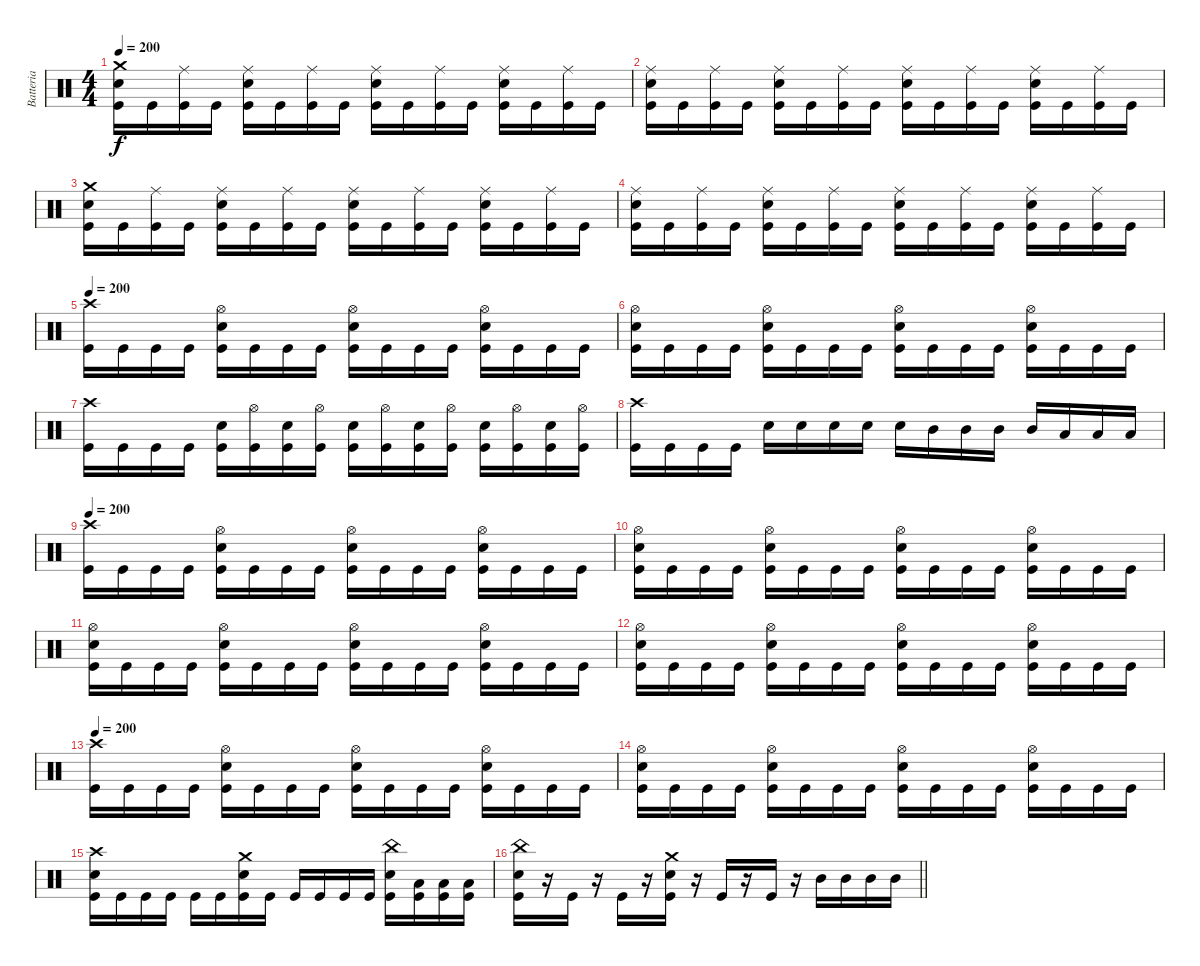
\track ("Batteria" "Batteria") {instrument percussion}
\staff {score}
\articulation defaults
\ts (4 4)
\tempo 200
\clef neutral
\ks c
("Crash medium (hit)" "Electric Snare (hit)" "Kick (hit)").16{dy f} "Kick (hit)".16 ("Ride (middle)" "Kick (hit)").16 "Kick (hit)".16 ("Ride (middle)" "Electric Snare (hit)" "Kick (hit)").16 "Kick (hit)".16 ("Ride (middle)" "Kick (hit)").16 "Kick (hit)".16 ("Ride (middle)" "Electric Snare (hit)" "Kick (hit)").16 "Kick (hit)".16 ("Ride (middle)" "Kick (hit)").16 "Kick (hit)".16 ("Ride (middle)" "Electric Snare (hit)" "Kick (hit)").16 "Kick (hit)".16 ("Ride (middle)" "Kick (hit)").16 "Kick (hit)".16 |
("Ride (middle)" "Electric Snare (hit)" "Kick (hit)").16 "Kick (hit)".16 ("Ride (middle)" "Kick (hit)").16 "Kick (hit)".16 ("Ride (middle)" "Electric Snare (hit)" "Kick (hit)").16 "Kick (hit)".16 ("Ride (middle)" "Kick (hit)").16 "Kick (hit)".16 ("Ride (middle)" "Electric Snare (hit)" "Kick (hit)").16 "Kick (hit)".16 ("Ride (middle)" "Kick (hit)").16 "Kick (hit)".16 ("Ride (middle)" "Electric Snare (hit)" "Kick (hit)").16 "Kick (hit)".16 ("Ride (middle)" "Kick (hit)").16 "Kick (hit)".16 |
("Crash medium (hit)" "Electric Snare (hit)" "Kick (hit)").16 "Kick (hit)".16 ("Ride (middle)" "Kick (hit)").16 "Kick (hit)".16 ("Ride (middle)" "Electric Snare (hit)" "Kick (hit)").16 "Kick (hit)".16 ("Ride (middle)" "Kick (hit)").16 "Kick (hit)".16 ("Ride (middle)" "Electric Snare (hit)" "Kick (hit)").16 "Kick (hit)".16 ("Ride (middle)" "Kick (hit)").16 "Kick (hit)".16 ("Ride (middle)" "Electric Snare (hit)" "Kick (hit)").16 "Kick (hit)".16 ("Ride (middle)" "Kick (hit)").16 "Kick (hit)".16 |
("Ride (middle)" "Electric Snare (hit)" "Kick (hit)").16 "Kick (hit)".16 ("Ride (middle)" "Kick (hit)").16 "Kick (hit)".16 ("Ride (middle)" "Electric Snare (hit)" "Kick (hit)").16 "Kick (hit)".16 ("Ride (middle)" "Kick (hit)").16 "Kick (hit)".16 ("Ride (middle)" "Electric Snare (hit)" "Kick (hit)").16 "Kick (hit)".16 ("Ride (middle)" "Kick (hit)").16 "Kick (hit)".16 ("Ride (middle)" "Electric Snare (hit)" "Kick (hit)").16 "Kick (hit)".16 ("Ride (middle)" "Kick (hit)").16 "Kick (hit)".16 |
\tempo 200
("Crash high (hit)" "Kick (hit)").16 "Kick (hit)".16 "Kick (hit)".16 "Kick (hit)".16 ("Hi-Hat (open)" "Electric Snare (hit)" "Kick (hit)").16 "Kick (hit)".16 "Kick (hit)".16 "Kick (hit)".16 ("Hi-Hat (open)" "Electric Snare (hit)" "Kick (hit)").16 "Kick (hit)".16 "Kick (hit)".16 "Kick (hit)".16 ("Hi-Hat (open)" "Electric Snare (hit)" "Kick (hit)").16 "Kick (hit)".16 "Kick (hit)".16 "Kick (hit)".16 |
("Hi-Hat (open)" "Electric Snare (hit)" "Kick (hit)").16 "Kick (hit)".16 "Kick (hit)".16 "Kick (hit)".16 ("Hi-Hat (open)" "Electric Snare (hit)" "Kick (hit)").16 "Kick (hit)".16 "Kick (hit)".16 "Kick (hit)".16 ("Hi-Hat (open)" "Electric Snare (hit)" "Kick (hit)").16 "Kick (hit)".16 "Kick (hit)".16 "Kick (hit)".16 ("Hi-Hat (open)" "Electric Snare (hit)" "Kick (hit)").16 "Kick (hit)".16 "Kick (hit)".16 "Kick (hit)".16 |
("Crash high (hit)" "Kick (hit)").16 "Kick (hit)".16 "Kick (hit)".16 "Kick (hit)".16 ("Electric Snare (hit)" "Kick (hit)").16 ("Hi-Hat (open)" "Kick (hit)").16 ("Electric Snare (hit)" "Kick (hit)").16 ("Hi-Hat (open)" "Kick (hit)").16 ("Electric Snare (hit)" "Kick (hit)").16 ("Hi-Hat (open)" "Kick (hit)").16 ("Electric Snare (hit)" "Kick (hit)").16 ("Hi-Hat (open)" "Kick (hit)").16 ("Electric Snare (hit)" "Kick (hit)").16 ("Hi-Hat (open)" "Kick (hit)").16 ("Electric Snare (hit)" "Kick (hit)").16 ("Hi-Hat (open)" "Kick (hit)").16 |
("Crash high (hit)" "Kick (hit)").16 "Kick (hit)".16 "Kick (hit)".16 "Kick (hit)".16 "Electric Snare (hit)".16 "Electric Snare (hit)".16 "Electric Snare (hit)".16 "Electric Snare (hit)".16 "Electric Snare (hit)".16 "Mid Tom (hit)".16 "Mid Tom (hit)".16 "Mid Tom (hit)".16 "Mid Tom (hit)".16 "Low Tom (hit)".16 "Low Tom (hit)".16 "Low Tom (hit)".16 |
\tempo 200
("Crash high (hit)" "Kick (hit)").16 "Kick (hit)".16 "Kick (hit)".16 "Kick (hit)".16 ("Hi-Hat (open)" "Electric Snare (hit)" "Kick (hit)").16 "Kick (hit)".16 "Kick (hit)".16 "Kick (hit)".16 ("Hi-Hat (open)" "Electric Snare (hit)" "Kick (hit)").16 "Kick (hit)".16 "Kick (hit)".16 "Kick (hit)".16 ("Hi-Hat (open)" "Electric Snare (hit)" "Kick (hit)").16 "Kick (hit)".16 "Kick (hit)".16 "Kick (hit)".16 |
("Hi-Hat (open)" "Electric Snare (hit)" "Kick (hit)").16 "Kick (hit)".16 "Kick (hit)".16 "Kick (hit)".16 ("Hi-Hat (open)" "Electric Snare (hit)" "Kick (hit)").16 "Kick (hit)".16 "Kick (hit)".16 "Kick (hit)".16 ("Hi-Hat (open)" "Electric Snare (hit)" "Kick (hit)").16 "Kick (hit)".16 "Kick (hit)".16 "Kick (hit)".16 ("Hi-Hat (open)" "Electric Snare (hit)" "Kick (hit)").16 "Kick (hit)".16 "Kick (hit)".16 "Kick (hit)".16 |
("Hi-Hat (open)" "Electric Snare (hit)" "Kick (hit)").16 "Kick (hit)".16 "Kick (hit)".16 "Kick (hit)".16 ("Hi-Hat (open)" "Electric Snare (hit)" "Kick (hit)").16 "Kick (hit)".16 "Kick (hit)".16 "Kick (hit)".16 ("Hi-Hat (open)" "Electric Snare (hit)" "Kick (hit)").16 "Kick (hit)".16 "Kick (hit)".16 "Kick (hit)".16 ("Hi-Hat (open)" "Electric Snare (hit)" "Kick (hit)").16 "Kick (hit)".16 "Kick (hit)".16 "Kick (hit)".16 |
("Hi-Hat (open)" "Electric Snare (hit)" "Kick (hit)").16 "Kick (hit)".16 "Kick (hit)".16 "Kick (hit)".16 ("Hi-Hat (open)" "Electric Snare (hit)" "Kick (hit)").16 "Kick (hit)".16 "Kick (hit)".16 "Kick (hit)".16 ("Hi-Hat (open)" "Electric Snare (hit)" "Kick (hit)").16 "Kick (hit)".16 "Kick (hit)".16 "Kick (hit)".16 ("Hi-Hat (open)" "Electric Snare (hit)" "Kick (hit)").16 "Kick (hit)".16 "Kick (hit)".16 "Kick (hit)".16 |
\tempo 200
("Crash high (hit)" "Kick (hit)").16 "Kick (hit)".16 "Kick (hit)".16 "Kick (hit)".16 ("Hi-Hat (open)" "Electric Snare (hit)" "Kick (hit)").16 "Kick (hit)".16 "Kick (hit)".16 "Kick (hit)".16 ("Hi-Hat (open)" "Electric Snare (hit)" "Kick (hit)").16 "Kick (hit)".16 "Kick (hit)".16 "Kick (hit)".16 ("Hi-Hat (open)" "Electric Snare (hit)" "Kick (hit)").16 "Kick (hit)".16 "Kick (hit)".16 "Kick (hit)".16 |
("Hi-Hat (open)" "Electric Snare (hit)" "Kick (hit)").16 "Kick (hit)".16 "Kick (hit)".16 "Kick (hit)".16 ("Hi-Hat (open)" "Electric Snare (hit)" "Kick (hit)").16 "Kick (hit)".16 "Kick (hit)".16 "Kick (hit)".16 ("Hi-Hat (open)" "Electric Snare (hit)" "Kick (hit)").16 "Kick (hit)".16 "Kick (hit)".16 "Kick (hit)".16 ("Hi-Hat (open)" "Electric Snare (hit)" "Kick (hit)").16 "Kick (hit)".16 "Kick (hit)".16 "Kick (hit)".16 |
("Crash high (hit)" "Electric Snare (hit)" "Kick (hit)").16 "Kick (hit)".16 "Kick (hit)".16 "Kick (hit)".16 "Kick (hit)".16 "Kick (hit)".16 ("Crash medium (hit)" "Electric Snare (hit)" "Kick (hit)").16 "Kick (hit)".16 "Kick (hit)".16 "Kick (hit)".16 "Kick (hit)".16 "Kick (hit)".16 ("China (hit)" "Electric Snare (hit)" "Kick (hit)").16 ("Low Tom (hit)" "Kick (hit)").16 ("Low Tom (hit)" "Kick (hit)").16 ("Low Tom (hit)" "Kick (hit)").16 |
\barLineRight lightlight
("China (hit)" "Electric Snare (hit)" "Kick (hit)").16 r.16 "Kick (hit)".16 r.16 "Kick (hit)".16 r.16 ("Crash medium (hit)" "Electric Snare (hit)" "Kick (hit)").16 r.16 "Kick (hit)".16 r.16 "Kick (hit)".16 r.16 "Mid Tom (hit)".16 "Mid Tom (hit)".16 "Mid Tom (hit)".16 "Mid Tom (hit)".16
